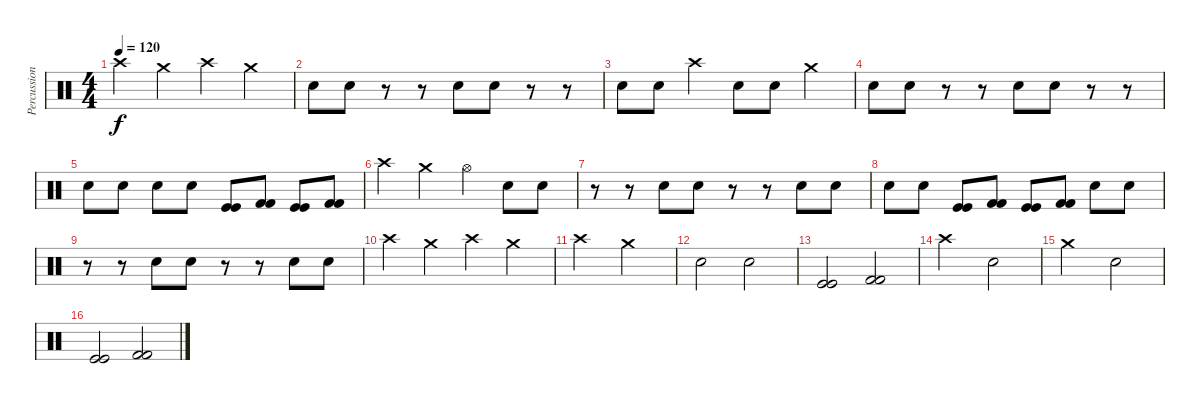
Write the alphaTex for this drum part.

\track ("Percussions" "Percussion") {instrument percussion}
\staff {score}
\articulation defaults
\ts (4 4)
\tempo 120
\clef neutral
\ks c "Crash high (hit)".4{dy f} "Crash medium (hit)".4 "Crash high (hit)".4 "Crash medium (hit)".4
|
"Electric Snare (hit)".8 "Snare (hit) 2".8 r.8 r.8 "Electric Snare (hit)".8 "Snare (hit) 2".8 r.8 r.8 |
"Electric Snare (hit)".8 "Snare (hit) 2".8 "Crash high (hit)".4 "Electric Snare (hit)".8 "Snare (hit) 2".8 "Crash medium (hit)".4 |
"Electric Snare (hit)".8 "Snare (hit) 2".8 r.8 r.8 "Electric Snare (hit)".8 "Snare (hit) 2".8 r.8 r.8 |
"Electric Snare (hit)".8 "Snare (hit) 2".8 "Electric Snare (hit)".8 "Snare (hit) 2".8 ("Kick (hit)" "Kick (hit)").8 ("Kick (hit) 2" "Kick (hit) 2").8 ("Kick (hit)" "Kick (hit)").8 ("Kick (hit) 2" "Kick (hit) 2").8 |
"Crash high (hit)".4 "Crash medium (hit)".4 "Hi-Hat (open)".4 "Electric Snare (hit)".8 "Snare (hit) 2".8 |
r.8 r.8 "Electric Snare (hit)".8 "Snare (hit) 2".8 r.8 r.8 "Electric Snare (hit)".8 "Snare (hit) 2".8 |
"Electric Snare (hit)".8 "Snare (hit) 2".8 ("Kick (hit)" "Kick (hit)").8 ("Kick (hit) 2" "Kick (hit) 2").8 ("Kick (hit)" "Kick (hit)").8 ("Kick (hit) 2" "Kick (hit) 2").8 "Electric Snare (hit)".8 "Snare (hit) 2".8 |
r.8 r.8 "Electric Snare (hit)".8 "Snare (hit) 2".8 r.8 r.8 "Electric Snare (hit)".8 "Snare (hit) 2".8 |
"Crash high (hit)".4 "Crash medium (hit)".4 "Crash high (hit)".4 "Crash medium (hit)".4 |
"Crash high (hit)".2 "Crash medium (hit)".2 |
"Electric Snare (hit)".2 "Snare (hit) 2".2 |
("Kick (hit)" "Kick (hit)").2 ("Kick (hit) 2" "Kick (hit) 2").2 |
"Crash high (hit)".2 "Snare (hit) 2".2 |
"Crash medium (hit)".2 "Electric Snare (hit)".2 |
("Kick (hit)" "Kick (hit)").2 ("Kick (hit) 2" "Kick (hit) 2").2
